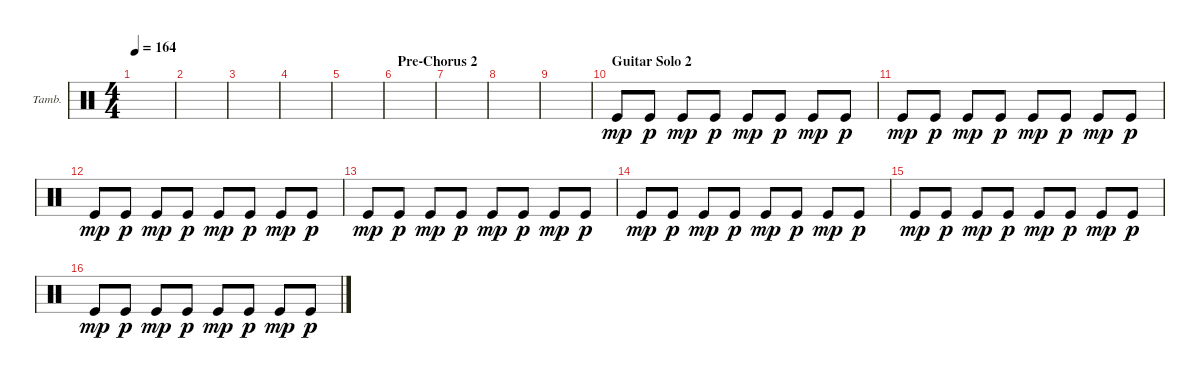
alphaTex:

\defaultSystemsLayout 4
\bracketExtendMode groupsimilarinstruments
\firstSystemTrackNameOrientation horizontal
\otherSystemsTrackNameOrientation horizontal
\track ("Tambourine" "Tamb.") {instrument percussion}
\staff {score}
\articulation defaults
\ts (4 4)
\tempo 164
\clef neutral
\ks c
|
|
|
|
|
\section ("" "Pre-Chorus 2")
|
|
|
|
\section ("" "Guitar Solo 2")
"Kick (hit)".8{dy mp} "Kick (hit)".8{dy p} "Kick (hit)".8{dy mp} "Kick (hit)".8{dy p} "Kick (hit)".8{dy mp} "Kick (hit)".8{dy p} "Kick (hit)".8{dy mp} "Kick (hit)".8{dy p} |
"Kick (hit)".8{dy mp} "Kick (hit)".8{dy p} "Kick (hit)".8{dy mp} "Kick (hit)".8{dy p} "Kick (hit)".8{dy mp} "Kick (hit)".8{dy p} "Kick (hit)".8{dy mp} "Kick (hit)".8{dy p} |
"Kick (hit)".8{dy mp} "Kick (hit)".8{dy p} "Kick (hit)".8{dy mp} "Kick (hit)".8{dy p} "Kick (hit)".8{dy mp} "Kick (hit)".8{dy p} "Kick (hit)".8{dy mp} "Kick (hit)".8{dy p} |
"Kick (hit)".8{dy mp} "Kick (hit)".8{dy p} "Kick (hit)".8{dy mp} "Kick (hit)".8{dy p} "Kick (hit)".8{dy mp} "Kick (hit)".8{dy p} "Kick (hit)".8{dy mp} "Kick (hit)".8{dy p} |
"Kick (hit)".8{dy mp} "Kick (hit)".8{dy p} "Kick (hit)".8{dy mp} "Kick (hit)".8{dy p} "Kick (hit)".8{dy mp} "Kick (hit)".8{dy p} "Kick (hit)".8{dy mp} "Kick (hit)".8{dy p} |
"Kick (hit)".8{dy mp} "Kick (hit)".8{dy p} "Kick (hit)".8{dy mp} "Kick (hit)".8{dy p} "Kick (hit)".8{dy mp} "Kick (hit)".8{dy p} "Kick (hit)".8{dy mp} "Kick (hit)".8{dy p} |
"Kick (hit)".8{dy mp} "Kick (hit)".8{dy p} "Kick (hit)".8{dy mp} "Kick (hit)".8{dy p} "Kick (hit)".8{dy mp} "Kick (hit)".8{dy p} "Kick (hit)".8{dy mp} "Kick (hit)".8{dy p}
